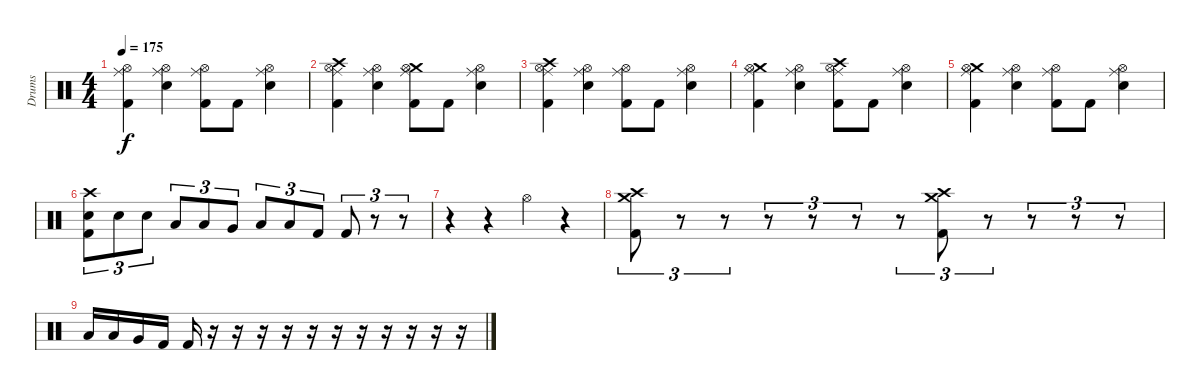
\track ("Drums" "Drums") {instrument percussion}
\staff {score}
\articulation defaults
\ts (4 4)
\tempo 175
\clef neutral
\ks c
("Ride (middle)" "Hi-Hat (open)" "Kick (hit) 2").4{dy f} ("Ride (middle)" "Hi-Hat (open)" "Electric Snare (hit)").4 ("Ride (middle)" "Hi-Hat (open)" "Kick (hit) 2").8 "Kick (hit) 2".8 ("Ride (middle)" "Hi-Hat (open)" "Electric Snare (hit)").4 |
("Crash high (hit)" "Ride (middle)" "Hi-Hat (open)" "Kick (hit) 2").4 ("Ride (middle)" "Hi-Hat (open)" "Electric Snare (hit)").4 ("Crash medium (hit)" "Ride (middle)" "Hi-Hat (open)" "Kick (hit) 2").8 "Kick (hit) 2".8 ("Ride (middle)" "Hi-Hat (open)" "Electric Snare (hit)").4 |
("Crash high (hit)" "Ride (middle)" "Hi-Hat (open)" "Kick (hit) 2").4 ("Ride (middle)" "Hi-Hat (open)" "Electric Snare (hit)").4 ("Ride (middle)" "Hi-Hat (open)" "Kick (hit) 2").8 "Kick (hit) 2".8 ("Ride (middle)" "Hi-Hat (open)" "Electric Snare (hit)").4 |
("Crash medium (hit)" "Ride (middle)" "Hi-Hat (open)" "Kick (hit) 2").4 ("Ride (middle)" "Hi-Hat (open)" "Electric Snare (hit)").4 ("Crash high (hit)" "Ride (middle)" "Hi-Hat (open)" "Kick (hit) 2").8 "Kick (hit) 2".8 ("Ride (middle)" "Hi-Hat (open)" "Electric Snare (hit)").4 |
("Crash medium (hit)" "Ride (middle)" "Hi-Hat (open)" "Kick (hit) 2").4 ("Ride (middle)" "Hi-Hat (open)" "Electric Snare (hit)").4 ("Ride (middle)" "Hi-Hat (open)" "Kick (hit) 2").8 "Kick (hit) 2".8 ("Ride (middle)" "Hi-Hat (open)" "Electric Snare (hit)").4 |
("Crash high (hit)" "Electric Snare (hit)" "Kick (hit) 2").8{tu (3 2)} "Electric Snare (hit)".8{tu (3 2)} "Electric Snare (hit)".8{tu (3 2)} "Low Tom (hit)".8{tu (3 2)} "Low Tom (hit)".8{tu (3 2)} "Very Low Tom (hit)".8{tu (3 2)} "Low Floor Tom (hit)".8{tu (3 2)} "Low Floor Tom (hit)".8{tu (3 2)} "Kick (hit) 2".8{tu (3 2)} "Kick (hit) 2".8{tu (3 2)} r.8{tu (3 2)} r.8{tu (3 2)} |
r.4 r.4 "Hi-Hat (open)".4 r.4 |
("Crash high (hit)" "Crash medium (hit)" "Kick (hit) 2").8{tu (3 2)} r.8{tu (3 2)} r.8{tu (3 2)} r.8{tu (3 2)} r.8{tu (3 2)} r.8{tu (3 2)} r.8{tu (3 2)} ("Crash medium (hit)" "Crash high (hit)" "Kick (hit) 2").8{tu (3 2)} r.8{tu (3 2)} r.8{tu (3 2)} r.8{tu (3 2)} r.8{tu (3 2)} |
"Low Tom (hit)".16 "Low Tom (hit)".16 "Very Low Tom (hit)".16 "Kick (hit) 2".16 "Kick (hit) 2".16 r.16 r.16 r.16 r.16 r.16 r.16 r.16 r.16 r.16 r.16 r.16
